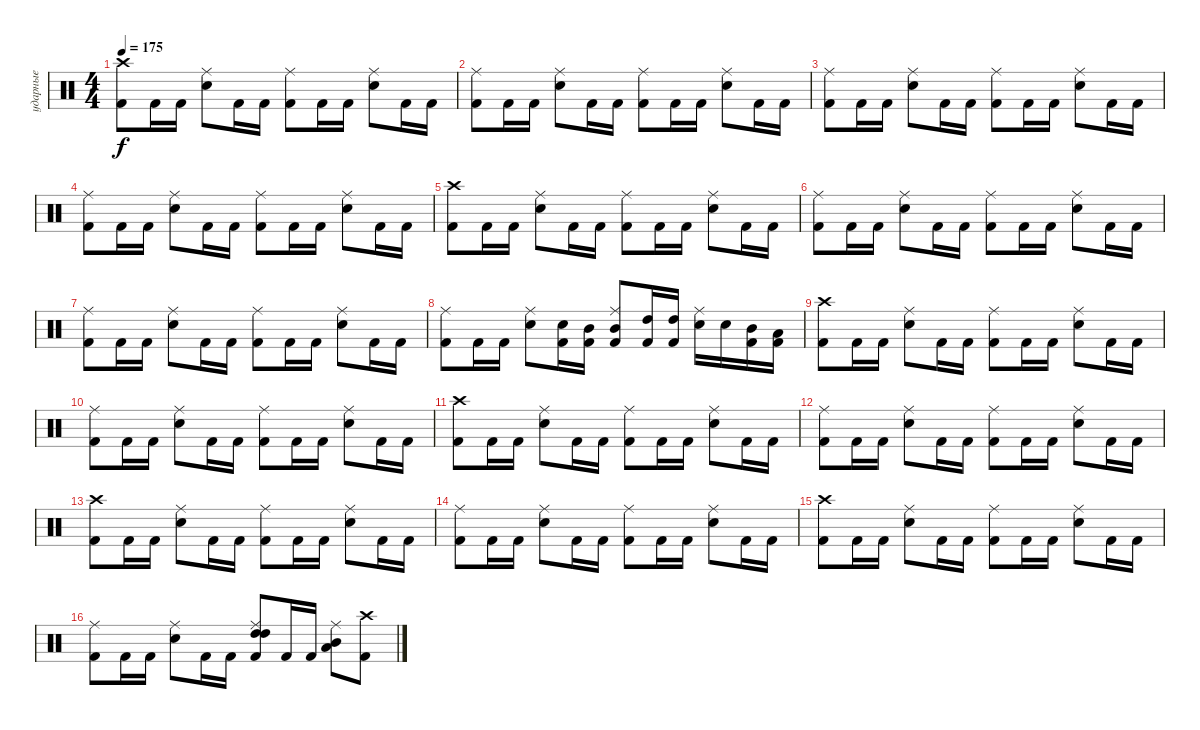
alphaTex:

\track ("ударные" "ударные") {instrument percussion}
\staff {score}
\articulation defaults
\ts (4 4)
\tempo 175
\clef neutral
\ks c
("Kick (hit) 2" "Crash high (hit)").8{dy f} "Kick (hit) 2".16 "Kick (hit) 2".16 ("Snare (hit) 2" "Ride (middle)").8 "Kick (hit) 2".16 "Kick (hit) 2".16 ("Kick (hit) 2" "Ride (middle)").8 "Kick (hit) 2".16 "Kick (hit) 2".16 ("Snare (hit) 2" "Ride (middle)").8 "Kick (hit) 2".16 "Kick (hit) 2".16 |
("Kick (hit) 2" "Ride (middle)").8 "Kick (hit) 2".16 "Kick (hit) 2".16 ("Snare (hit) 2" "Ride (middle)").8 "Kick (hit) 2".16 "Kick (hit) 2".16 ("Kick (hit) 2" "Ride (middle)").8 "Kick (hit) 2".16 "Kick (hit) 2".16 ("Snare (hit) 2" "Ride (middle)").8 "Kick (hit) 2".16 "Kick (hit) 2".16 |
("Kick (hit) 2" "Ride (middle)").8 "Kick (hit) 2".16 "Kick (hit) 2".16 ("Snare (hit) 2" "Ride (middle)").8 "Kick (hit) 2".16 "Kick (hit) 2".16 ("Kick (hit) 2" "Ride (middle)").8 "Kick (hit) 2".16 "Kick (hit) 2".16 ("Snare (hit) 2" "Ride (middle)").8 "Kick (hit) 2".16 "Kick (hit) 2".16 |
("Kick (hit) 2" "Ride (middle)").8 "Kick (hit) 2".16 "Kick (hit) 2".16 ("Snare (hit) 2" "Ride (middle)").8 "Kick (hit) 2".16 "Kick (hit) 2".16 ("Kick (hit) 2" "Ride (middle)").8 "Kick (hit) 2".16 "Kick (hit) 2".16 ("Snare (hit) 2" "Ride (middle)").8 "Kick (hit) 2".16 "Kick (hit) 2".16 |
("Kick (hit) 2" "Crash high (hit)").8 "Kick (hit) 2".16 "Kick (hit) 2".16 ("Snare (hit) 2" "Ride (middle)").8 "Kick (hit) 2".16 "Kick (hit) 2".16 ("Kick (hit) 2" "Ride (middle)").8 "Kick (hit) 2".16 "Kick (hit) 2".16 ("Snare (hit) 2" "Ride (middle)").8 "Kick (hit) 2".16 "Kick (hit) 2".16 |
("Kick (hit) 2" "Ride (middle)").8 "Kick (hit) 2".16 "Kick (hit) 2".16 ("Snare (hit) 2" "Ride (middle)").8 "Kick (hit) 2".16 "Kick (hit) 2".16 ("Kick (hit) 2" "Ride (middle)").8 "Kick (hit) 2".16 "Kick (hit) 2".16 ("Snare (hit) 2" "Ride (middle)").8 "Kick (hit) 2".16 "Kick (hit) 2".16 |
("Kick (hit) 2" "Ride (middle)").8 "Kick (hit) 2".16 "Kick (hit) 2".16 ("Snare (hit) 2" "Ride (middle)").8 "Kick (hit) 2".16 "Kick (hit) 2".16 ("Kick (hit) 2" "Ride (middle)").8 "Kick (hit) 2".16 "Kick (hit) 2".16 ("Snare (hit) 2" "Ride (middle)").8 "Kick (hit) 2".16 "Kick (hit) 2".16 |
("Kick (hit) 2" "Ride (middle)").8 "Kick (hit) 2".16 "Kick (hit) 2".16 ("Snare (hit) 2" "Ride (middle)").8 ("Kick (hit) 2" "Snare (hit) 2").16 ("Kick (hit) 2" "Mid Tom (hit)").16 ("Kick (hit) 2" "Mid Tom (hit)" "Ride (middle)").8 ("Kick (hit) 2" "High Tom (hit)").16 ("Kick (hit) 2" "High Tom (hit)").16 ("Snare (hit) 2" "Ride (middle)").16 "Snare (hit) 2".16 ("Kick (hit) 2" "Mid Tom (hit)").16 ("Kick (hit) 2" "Low Tom (hit)").16 |
("Kick (hit) 2" "Crash high (hit)").8 "Kick (hit) 2".16 "Kick (hit) 2".16 ("Snare (hit) 2" "Ride (middle)").8 "Kick (hit) 2".16 "Kick (hit) 2".16 ("Kick (hit) 2" "Ride (middle)").8 "Kick (hit) 2".16 "Kick (hit) 2".16 ("Snare (hit) 2" "Ride (middle)").8 "Kick (hit) 2".16 "Kick (hit) 2".16 |
("Kick (hit) 2" "Ride (middle)").8 "Kick (hit) 2".16 "Kick (hit) 2".16 ("Snare (hit) 2" "Ride (middle)").8 "Kick (hit) 2".16 "Kick (hit) 2".16 ("Kick (hit) 2" "Ride (middle)").8 "Kick (hit) 2".16 "Kick (hit) 2".16 ("Snare (hit) 2" "Ride (middle)").8 "Kick (hit) 2".16 "Kick (hit) 2".16 |
("Kick (hit) 2" "Crash high (hit)").8 "Kick (hit) 2".16 "Kick (hit) 2".16 ("Snare (hit) 2" "Ride (middle)").8 "Kick (hit) 2".16 "Kick (hit) 2".16 ("Kick (hit) 2" "Ride (middle)").8 "Kick (hit) 2".16 "Kick (hit) 2".16 ("Snare (hit) 2" "Ride (middle)").8 "Kick (hit) 2".16 "Kick (hit) 2".16 |
("Kick (hit) 2" "Ride (middle)").8 "Kick (hit) 2".16 "Kick (hit) 2".16 ("Snare (hit) 2" "Ride (middle)").8 "Kick (hit) 2".16 "Kick (hit) 2".16 ("Kick (hit) 2" "Ride (middle)").8 "Kick (hit) 2".16 "Kick (hit) 2".16 ("Snare (hit) 2" "Ride (middle)").8 "Kick (hit) 2".16 "Kick (hit) 2".16 |
("Kick (hit) 2" "Crash high (hit)").8 "Kick (hit) 2".16 "Kick (hit) 2".16 ("Snare (hit) 2" "Ride (middle)").8 "Kick (hit) 2".16 "Kick (hit) 2".16 ("Kick (hit) 2" "Ride (middle)").8 "Kick (hit) 2".16 "Kick (hit) 2".16 ("Snare (hit) 2" "Ride (middle)").8 "Kick (hit) 2".16 "Kick (hit) 2".16 |
("Kick (hit) 2" "Ride (middle)").8 "Kick (hit) 2".16 "Kick (hit) 2".16 ("Snare (hit) 2" "Ride (middle)").8 "Kick (hit) 2".16 "Kick (hit) 2".16 ("Kick (hit) 2" "Ride (middle)").8 "Kick (hit) 2".16 "Kick (hit) 2".16 ("Snare (hit) 2" "Ride (middle)").8 "Kick (hit) 2".16 "Kick (hit) 2".16 |
("Kick (hit) 2" "Crash high (hit)").8 "Kick (hit) 2".16 "Kick (hit) 2".16 ("Snare (hit) 2" "Ride (middle)").8 "Kick (hit) 2".16 "Kick (hit) 2".16 ("Kick (hit) 2" "Ride (middle)").8 "Kick (hit) 2".16 "Kick (hit) 2".16 ("Snare (hit) 2" "Ride (middle)").8 "Kick (hit) 2".16 "Kick (hit) 2".16 |
("Kick (hit) 2" "Ride (middle)").8 "Kick (hit) 2".16 "Kick (hit) 2".16 ("Snare (hit) 2" "Ride (middle)").8 "Kick (hit) 2".16 "Kick (hit) 2".16 ("Kick (hit) 2" "High Tom (hit)" "Ride (middle)" "High Tom (hit)").8 "Kick (hit) 2".16 "Kick (hit) 2".16 ("Mid Tom (hit)" "Ride (middle)" "Low Tom (hit)").8 ("Kick (hit) 2" "Crash high (hit)").8
